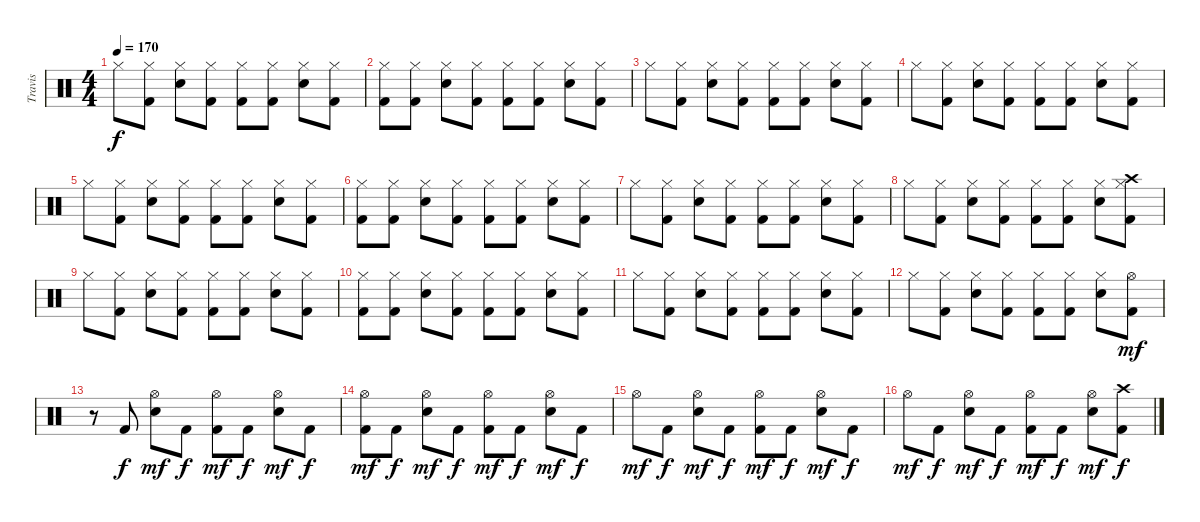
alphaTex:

\track ("Travis" "Travis") {instrument percussion}
\staff {score}
\articulation defaults
\ts (4 4)
\tempo 170
\clef neutral
\ks c "Hi-Hat (closed)".8{dy f}
("Hi-Hat (closed)" "Kick (hit) 2").8 ("Hi-Hat (closed)" "Snare (hit) 2").8 ("Hi-Hat (closed)" "Kick (hit) 2").8 ("Hi-Hat (closed)" "Kick (hit) 2").8 ("Hi-Hat (closed)" "Kick (hit) 2").8 ("Hi-Hat (closed)" "Snare (hit) 2").8 ("Hi-Hat (closed)" "Kick (hit) 2").8 |
("Hi-Hat (closed)" "Kick (hit) 2").8 ("Hi-Hat (closed)" "Kick (hit) 2").8 ("Hi-Hat (closed)" "Snare (hit) 2").8 ("Hi-Hat (closed)" "Kick (hit) 2").8 ("Hi-Hat (closed)" "Kick (hit) 2").8 ("Hi-Hat (closed)" "Kick (hit) 2").8 ("Hi-Hat (closed)" "Snare (hit) 2").8 ("Hi-Hat (closed)" "Kick (hit) 2").8 |
"Hi-Hat (closed)".8 ("Hi-Hat (closed)" "Kick (hit) 2").8 ("Hi-Hat (closed)" "Snare (hit) 2").8 ("Hi-Hat (closed)" "Kick (hit) 2").8 ("Hi-Hat (closed)" "Kick (hit) 2").8 ("Hi-Hat (closed)" "Kick (hit) 2").8 ("Hi-Hat (closed)" "Snare (hit) 2").8 ("Hi-Hat (closed)" "Kick (hit) 2").8 |
"Hi-Hat (closed)".8 ("Hi-Hat (closed)" "Kick (hit) 2").8 ("Hi-Hat (closed)" "Snare (hit) 2").8 ("Hi-Hat (closed)" "Kick (hit) 2").8 ("Hi-Hat (closed)" "Kick (hit) 2").8 ("Hi-Hat (closed)" "Kick (hit) 2").8 ("Hi-Hat (closed)" "Snare (hit) 2").8 ("Hi-Hat (closed)" "Kick (hit) 2").8 |
"Hi-Hat (closed)".8 ("Hi-Hat (closed)" "Kick (hit) 2").8 ("Hi-Hat (closed)" "Snare (hit) 2").8 ("Hi-Hat (closed)" "Kick (hit) 2").8 ("Hi-Hat (closed)" "Kick (hit) 2").8 ("Hi-Hat (closed)" "Kick (hit) 2").8 ("Hi-Hat (closed)" "Snare (hit) 2").8 ("Hi-Hat (closed)" "Kick (hit) 2").8 |
("Hi-Hat (closed)" "Kick (hit) 2").8 ("Hi-Hat (closed)" "Kick (hit) 2").8 ("Hi-Hat (closed)" "Snare (hit) 2").8 ("Hi-Hat (closed)" "Kick (hit) 2").8 ("Hi-Hat (closed)" "Kick (hit) 2").8 ("Hi-Hat (closed)" "Kick (hit) 2").8 ("Hi-Hat (closed)" "Snare (hit) 2").8 ("Hi-Hat (closed)" "Kick (hit) 2").8 |
"Hi-Hat (closed)".8 ("Hi-Hat (closed)" "Kick (hit) 2").8 ("Hi-Hat (closed)" "Snare (hit) 2").8 ("Hi-Hat (closed)" "Kick (hit) 2").8 ("Hi-Hat (closed)" "Kick (hit) 2").8 ("Hi-Hat (closed)" "Kick (hit) 2").8 ("Hi-Hat (closed)" "Snare (hit) 2").8 ("Hi-Hat (closed)" "Kick (hit) 2").8 |
"Hi-Hat (closed)".8 ("Hi-Hat (closed)" "Kick (hit) 2").8 ("Hi-Hat (closed)" "Snare (hit) 2").8 ("Hi-Hat (closed)" "Kick (hit) 2").8 ("Hi-Hat (closed)" "Kick (hit) 2").8 ("Hi-Hat (closed)" "Kick (hit) 2").8 ("Hi-Hat (closed)" "Snare (hit) 2").8 ("Crash high (hit)" "Hi-Hat (closed)" "Kick (hit) 2").8 |
"Hi-Hat (closed)".8 ("Hi-Hat (closed)" "Kick (hit) 2").8 ("Hi-Hat (closed)" "Snare (hit) 2").8 ("Hi-Hat (closed)" "Kick (hit) 2").8 ("Hi-Hat (closed)" "Kick (hit) 2").8 ("Hi-Hat (closed)" "Kick (hit) 2").8 ("Hi-Hat (closed)" "Snare (hit) 2").8 ("Hi-Hat (closed)" "Kick (hit) 2").8 |
("Hi-Hat (closed)" "Kick (hit) 2").8 ("Hi-Hat (closed)" "Kick (hit) 2").8 ("Hi-Hat (closed)" "Snare (hit) 2").8 ("Hi-Hat (closed)" "Kick (hit) 2").8 ("Hi-Hat (closed)" "Kick (hit) 2").8 ("Hi-Hat (closed)" "Kick (hit) 2").8 ("Hi-Hat (closed)" "Snare (hit) 2").8 ("Hi-Hat (closed)" "Kick (hit) 2").8 |
"Hi-Hat (closed)".8 ("Hi-Hat (closed)" "Kick (hit) 2").8 ("Hi-Hat (closed)" "Snare (hit) 2").8 ("Hi-Hat (closed)" "Kick (hit) 2").8 ("Hi-Hat (closed)" "Kick (hit) 2").8 ("Hi-Hat (closed)" "Kick (hit) 2").8 ("Hi-Hat (closed)" "Snare (hit) 2").8 ("Hi-Hat (closed)" "Kick (hit) 2").8 |
"Hi-Hat (closed)".8 ("Hi-Hat (closed)" "Kick (hit) 2").8 ("Hi-Hat (closed)" "Snare (hit) 2").8 ("Hi-Hat (closed)" "Kick (hit) 2").8 ("Hi-Hat (closed)" "Kick (hit) 2").8 ("Hi-Hat (closed)" "Kick (hit) 2").8 ("Hi-Hat (closed)" "Snare (hit) 2").8 ("Hi-Hat (open)" "Kick (hit) 2").8{dy mf} |
r.8 "Kick (hit) 2".8{dy f} ("Hi-Hat (open)" "Snare (hit) 2").8{dy mf} "Kick (hit) 2".8{dy f} ("Hi-Hat (open)" "Kick (hit) 2").8{dy mf} "Kick (hit) 2".8{dy f} ("Hi-Hat (open)" "Snare (hit) 2").8{dy mf} "Kick (hit) 2".8{dy f} |
("Hi-Hat (open)" "Kick (hit) 2").8{dy mf} "Kick (hit) 2".8{dy f} ("Hi-Hat (open)" "Snare (hit) 2").8{dy mf} "Kick (hit) 2".8{dy f} ("Hi-Hat (open)" "Kick (hit) 2").8{dy mf} "Kick (hit) 2".8{dy f} ("Hi-Hat (open)" "Snare (hit) 2").8{dy mf} "Kick (hit) 2".8{dy f} |
"Hi-Hat (open)".8{dy mf} "Kick (hit) 2".8{dy f} ("Hi-Hat (open)" "Snare (hit) 2").8{dy mf} "Kick (hit) 2".8{dy f} ("Hi-Hat (open)" "Kick (hit) 2").8{dy mf} "Kick (hit) 2".8{dy f} ("Hi-Hat (open)" "Snare (hit) 2").8{dy mf} "Kick (hit) 2".8{dy f} |
"Hi-Hat (open)".8{dy mf} "Kick (hit) 2".8{dy f} ("Hi-Hat (open)" "Snare (hit) 2").8{dy mf} "Kick (hit) 2".8{dy f} ("Hi-Hat (open)" "Kick (hit) 2").8{dy mf} "Kick (hit) 2".8{dy f} ("Hi-Hat (open)" "Snare (hit) 2").8{dy mf} ("Crash high (hit)" "Kick (hit) 2").8{dy f}
